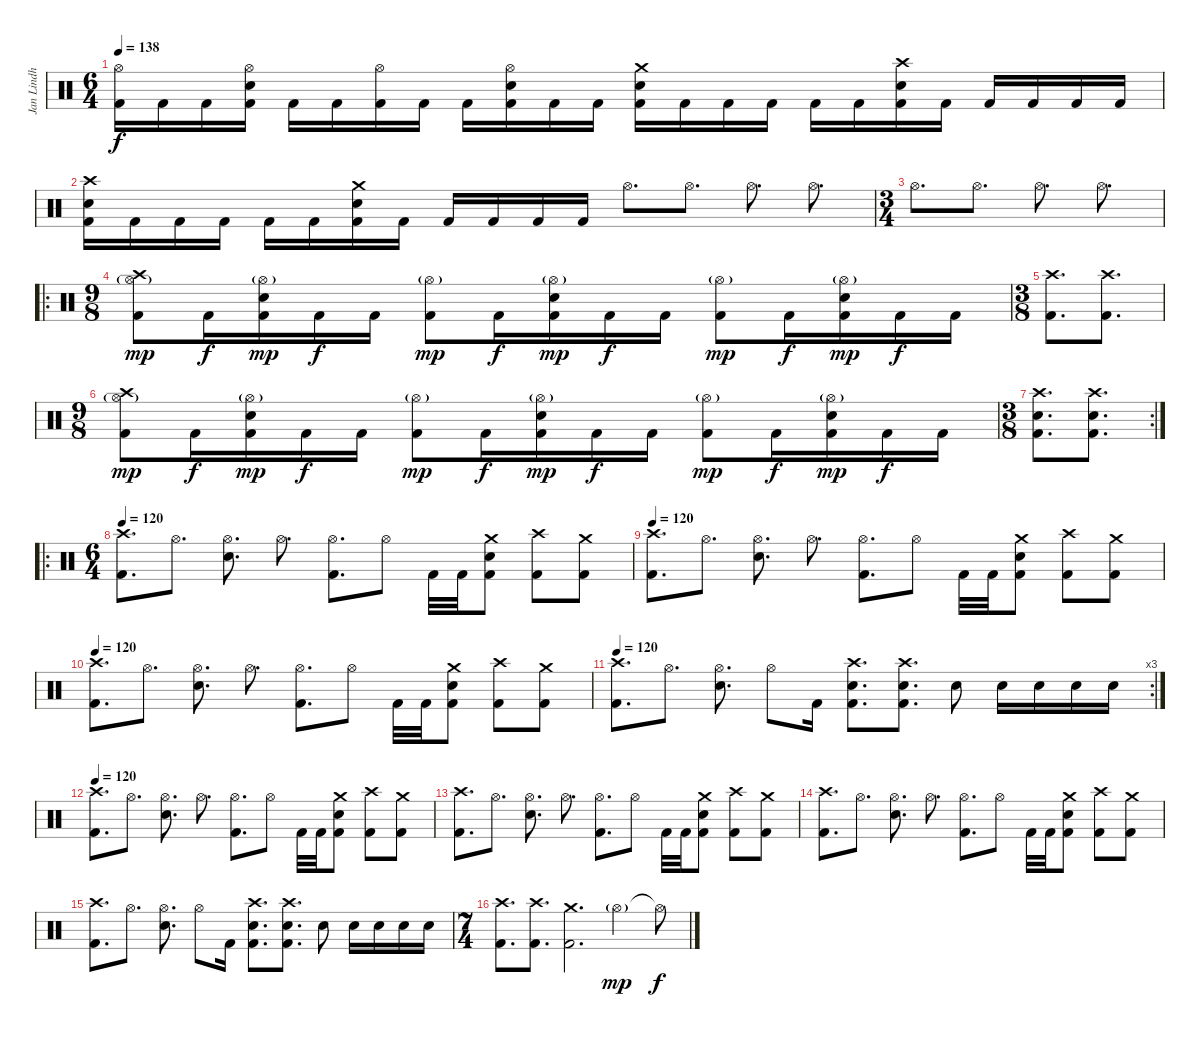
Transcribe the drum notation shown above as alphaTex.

\track ("Jan Lindh" "Jan Lindh") {instrument percussion}
\staff {score}
\articulation defaults
\ts (6 4)
\tempo 138
\clef neutral
\ks c
("Hi-Hat (open)" "Kick (hit) 2").16{dy f} "Kick (hit) 2".16 "Kick (hit) 2".16 ("Hi-Hat (open)" "Electric Snare (hit)" "Kick (hit) 2").16 "Kick (hit) 2".16 "Kick (hit) 2".16 ("Hi-Hat (open)" "Kick (hit) 2").16 "Kick (hit) 2".16 "Kick (hit) 2".16 ("Hi-Hat (open)" "Electric Snare (hit)" "Kick (hit) 2").16 "Kick (hit) 2".16 "Kick (hit) 2".16 ("Crash medium (hit)" "Electric Snare (hit)" "Kick (hit) 2").16 "Kick (hit) 2".16 "Kick (hit) 2".16 "Kick (hit) 2".16 "Kick (hit) 2".16 "Kick (hit) 2".16 ("Crash high (hit)" "Electric Snare (hit)" "Kick (hit) 2").16 "Kick (hit) 2".16 "Kick (hit) 2".16 "Kick (hit) 2".16 "Kick (hit) 2".16 "Kick (hit) 2".16 |
("Crash high (hit)" "Electric Snare (hit)" "Kick (hit) 2").16 "Kick (hit) 2".16 "Kick (hit) 2".16 "Kick (hit) 2".16 "Kick (hit) 2".16 "Kick (hit) 2".16 ("Crash medium (hit)" "Electric Snare (hit)" "Kick (hit) 2").16 "Kick (hit) 2".16 "Kick (hit) 2".16 "Kick (hit) 2".16 "Kick (hit) 2".16 "Kick (hit) 2".16 "Hi-Hat (open)".8{d} "Hi-Hat (open)".8{d} "Hi-Hat (open)".8{d} "Hi-Hat (open)".8{d} |
\ts (3 4)
"Hi-Hat (open)".8{d} "Hi-Hat (open)".8{d} "Hi-Hat (open)".8{d} "Hi-Hat (open)".8{d} |
\ro
\ts (9 8)
("Crash high (hit)" "Hi-Hat (open)"{g} "Kick (hit) 2").8{dy mp} "Kick (hit) 2".16{dy f} ("Hi-Hat (open)"{g} "Electric Snare (hit)" "Kick (hit) 2").16{dy mp} "Kick (hit) 2".16{dy f} "Kick (hit) 2".16 ("Hi-Hat (open)"{g} "Kick (hit) 2").8{dy mp} "Kick (hit) 2".16{dy f} ("Hi-Hat (open)"{g} "Electric Snare (hit)" "Kick (hit) 2").16{dy mp} "Kick (hit) 2".16{dy f} "Kick (hit) 2".16 ("Hi-Hat (open)"{g} "Kick (hit) 2").8{dy mp} "Kick (hit) 2".16{dy f} ("Hi-Hat (open)"{g} "Electric Snare (hit)" "Kick (hit) 2").16{dy mp} "Kick (hit) 2".16{dy f} "Kick (hit) 2".16 |
\ts (3 8)
("Crash high (hit)" "Kick (hit) 2").8{d} ("Crash high (hit)" "Kick (hit) 2").8{d} |
\ts (9 8)
("Crash high (hit)" "Hi-Hat (open)"{g} "Kick (hit) 2").8{dy mp} "Kick (hit) 2".16{dy f} ("Hi-Hat (open)"{g} "Electric Snare (hit)" "Kick (hit) 2").16{dy mp} "Kick (hit) 2".16{dy f} "Kick (hit) 2".16 ("Hi-Hat (open)"{g} "Kick (hit) 2").8{dy mp} "Kick (hit) 2".16{dy f} ("Hi-Hat (open)"{g} "Electric Snare (hit)" "Kick (hit) 2").16{dy mp} "Kick (hit) 2".16{dy f} "Kick (hit) 2".16 ("Hi-Hat (open)"{g} "Kick (hit) 2").8{dy mp} "Kick (hit) 2".16{dy f} ("Hi-Hat (open)"{g} "Electric Snare (hit)" "Kick (hit) 2").16{dy mp} "Kick (hit) 2".16{dy f} "Kick (hit) 2".16 |
\rc 2
\ts (3 8)
("Crash high (hit)" "Electric Snare (hit)" "Kick (hit) 2").8{d} ("Crash high (hit)" "Electric Snare (hit)" "Kick (hit) 2").8{d} |
\ro
\ts (6 4)
\tempo 120
("Crash high (hit)" "Kick (hit) 2").8{d} "Hi-Hat (open)".8{d} ("Hi-Hat (open)" "Electric Snare (hit)").8{d} "Hi-Hat (open)".8{d} ("Hi-Hat (open)" "Kick (hit) 2").8{d} "Hi-Hat (open)".8 "Kick (hit) 2".32 "Kick (hit) 2".32 ("Crash medium (hit)" "Electric Snare (hit)" "Kick (hit) 2").8 ("Crash high (hit)" "Kick (hit) 2").8 ("Crash medium (hit)" "Kick (hit) 2").8 |
\tempo 120
("Crash high (hit)" "Kick (hit) 2").8{d} "Hi-Hat (open)".8{d} ("Hi-Hat (open)" "Electric Snare (hit)").8{d} "Hi-Hat (open)".8{d} ("Hi-Hat (open)" "Kick (hit) 2").8{d} "Hi-Hat (open)".8 "Kick (hit) 2".32 "Kick (hit) 2".32 ("Crash medium (hit)" "Electric Snare (hit)" "Kick (hit) 2").8 ("Crash high (hit)" "Kick (hit) 2").8 ("Crash medium (hit)" "Kick (hit) 2").8 |
\tempo 120
("Crash high (hit)" "Kick (hit) 2").8{d} "Hi-Hat (open)".8{d} ("Hi-Hat (open)" "Electric Snare (hit)").8{d} "Hi-Hat (open)".8{d} ("Hi-Hat (open)" "Kick (hit) 2").8{d} "Hi-Hat (open)".8 "Kick (hit) 2".32 "Kick (hit) 2".32 ("Crash medium (hit)" "Electric Snare (hit)" "Kick (hit) 2").8 ("Crash high (hit)" "Kick (hit) 2").8 ("Crash medium (hit)" "Kick (hit) 2").8 |
\rc 3
\tempo 120
("Crash high (hit)" "Kick (hit) 2").8{d} "Hi-Hat (open)".8{d} ("Hi-Hat (open)" "Electric Snare (hit)").8{d} "Hi-Hat (open)".8 "Kick (hit) 2".16 ("Crash high (hit)" "Electric Snare (hit)" "Kick (hit) 2").8{d} ("Crash high (hit)" "Electric Snare (hit)" "Kick (hit) 2").8{d} "Electric Snare (hit)".8 "Electric Snare (hit)".16 "Electric Snare (hit)".16 "Electric Snare (hit)".16 "Electric Snare (hit)".16 |
\tempo 120
("Crash high (hit)" "Kick (hit) 2").8{d} "Hi-Hat (open)".8{d} ("Hi-Hat (open)" "Electric Snare (hit)").8{d} "Hi-Hat (open)".8{d} ("Hi-Hat (open)" "Kick (hit) 2").8{d} "Hi-Hat (open)".8 "Kick (hit) 2".32 "Kick (hit) 2".32 ("Crash medium (hit)" "Electric Snare (hit)" "Kick (hit) 2").8 ("Crash high (hit)" "Kick (hit) 2").8 ("Crash medium (hit)" "Kick (hit) 2").8 |
("Crash high (hit)" "Kick (hit) 2").8{d} "Hi-Hat (open)".8{d} ("Hi-Hat (open)" "Electric Snare (hit)").8{d} "Hi-Hat (open)".8{d} ("Hi-Hat (open)" "Kick (hit) 2").8{d} "Hi-Hat (open)".8 "Kick (hit) 2".32 "Kick (hit) 2".32 ("Crash medium (hit)" "Electric Snare (hit)" "Kick (hit) 2").8 ("Crash high (hit)" "Kick (hit) 2").8 ("Crash medium (hit)" "Kick (hit) 2").8 |
("Crash high (hit)" "Kick (hit) 2").8{d} "Hi-Hat (open)".8{d} ("Hi-Hat (open)" "Electric Snare (hit)").8{d} "Hi-Hat (open)".8{d} ("Hi-Hat (open)" "Kick (hit) 2").8{d} "Hi-Hat (open)".8 "Kick (hit) 2".32 "Kick (hit) 2".32 ("Crash medium (hit)" "Electric Snare (hit)" "Kick (hit) 2").8 ("Crash high (hit)" "Kick (hit) 2").8 ("Crash medium (hit)" "Kick (hit) 2").8 |
("Crash high (hit)" "Kick (hit) 2").8{d} "Hi-Hat (open)".8{d} ("Hi-Hat (open)" "Electric Snare (hit)").8{d} "Hi-Hat (open)".8 "Kick (hit) 2".16 ("Crash high (hit)" "Electric Snare (hit)" "Kick (hit) 2").8{d} ("Crash high (hit)" "Electric Snare (hit)" "Kick (hit) 2").8{d} "Electric Snare (hit)".8 "Electric Snare (hit)".16 "Electric Snare (hit)".16 "Electric Snare (hit)".16 "Electric Snare (hit)".16 |
\ts (7 4)
("Crash high (hit)" "Kick (hit) 2").8{d} ("Crash high (hit)" "Kick (hit) 2").8{d} ("Crash medium (hit)" "Kick (hit) 2").2{d} "Hi-Hat (open)"{g}.2{dy mp} "Hi-Hat (open)"{t}.8{dy f}
